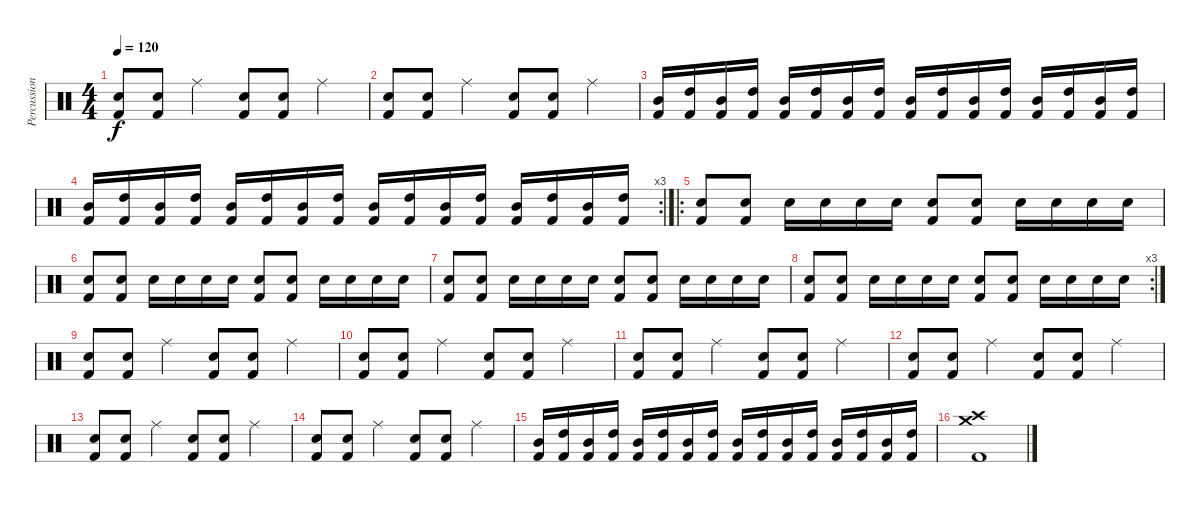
\track ("Percussion" "Percussion") {instrument percussion}
\staff {score}
\articulation defaults
\ts (4 4)
\tempo 120
\clef neutral
\ks c
("Electric Snare (hit)" "Kick (hit) 2").8{dy f} ("Electric Snare (hit)" "Kick (hit) 2").8 "Ride (middle)".4 ("Electric Snare (hit)" "Kick (hit) 2").8 ("Electric Snare (hit)" "Kick (hit) 2").8 "Ride (middle)".4 |
("Electric Snare (hit)" "Kick (hit) 2").8 ("Electric Snare (hit)" "Kick (hit) 2").8 "Ride (middle)".4 ("Electric Snare (hit)" "Kick (hit) 2").8 ("Electric Snare (hit)" "Kick (hit) 2").8 "Ride (middle)".4 |
("Kick (hit) 2" "Mid Tom (hit)").16 ("Kick (hit) 2" "High Tom (hit)").16 ("Kick (hit) 2" "Mid Tom (hit)").16 ("Kick (hit) 2" "High Tom (hit)").16 ("Kick (hit) 2" "Mid Tom (hit)").16 ("Kick (hit) 2" "High Tom (hit)").16 ("Kick (hit) 2" "Mid Tom (hit)").16 ("Kick (hit) 2" "High Tom (hit)").16 ("Kick (hit) 2" "Mid Tom (hit)").16 ("Kick (hit) 2" "High Tom (hit)").16 ("Kick (hit) 2" "Mid Tom (hit)").16 ("Kick (hit) 2" "High Tom (hit)").16 ("Kick (hit) 2" "Mid Tom (hit)").16 ("Kick (hit) 2" "High Tom (hit)").16 ("Kick (hit) 2" "Mid Tom (hit)").16 ("Kick (hit) 2" "High Tom (hit)").16 |
\rc 3
("Kick (hit) 2" "Mid Tom (hit)").16 ("Kick (hit) 2" "High Tom (hit)").16 ("Kick (hit) 2" "Mid Tom (hit)").16 ("Kick (hit) 2" "High Tom (hit)").16 ("Kick (hit) 2" "Mid Tom (hit)").16 ("Kick (hit) 2" "High Tom (hit)").16 ("Kick (hit) 2" "Mid Tom (hit)").16 ("Kick (hit) 2" "High Tom (hit)").16 ("Kick (hit) 2" "Mid Tom (hit)").16 ("Kick (hit) 2" "High Tom (hit)").16 ("Kick (hit) 2" "Mid Tom (hit)").16 ("Kick (hit) 2" "High Tom (hit)").16 ("Kick (hit) 2" "Mid Tom (hit)").16 ("Kick (hit) 2" "High Tom (hit)").16 ("Kick (hit) 2" "Mid Tom (hit)").16 ("Kick (hit) 2" "High Tom (hit)").16 |
\ro
("Electric Snare (hit)" "Kick (hit) 2").8 ("Electric Snare (hit)" "Kick (hit) 2").8 "Electric Snare (hit)".16 "Electric Snare (hit)".16 "Electric Snare (hit)".16 "Electric Snare (hit)".16 ("Electric Snare (hit)" "Kick (hit) 2").8 ("Electric Snare (hit)" "Kick (hit) 2").8 "Electric Snare (hit)".16 "Electric Snare (hit)".16 "Electric Snare (hit)".16 "Electric Snare (hit)".16 |
("Electric Snare (hit)" "Kick (hit) 2").8 ("Electric Snare (hit)" "Kick (hit) 2").8 "Electric Snare (hit)".16 "Electric Snare (hit)".16 "Electric Snare (hit)".16 "Electric Snare (hit)".16 ("Electric Snare (hit)" "Kick (hit) 2").8 ("Electric Snare (hit)" "Kick (hit) 2").8 "Electric Snare (hit)".16 "Electric Snare (hit)".16 "Electric Snare (hit)".16 "Electric Snare (hit)".16 |
("Electric Snare (hit)" "Kick (hit) 2").8 ("Electric Snare (hit)" "Kick (hit) 2").8 "Electric Snare (hit)".16 "Electric Snare (hit)".16 "Electric Snare (hit)".16 "Electric Snare (hit)".16 ("Electric Snare (hit)" "Kick (hit) 2").8 ("Electric Snare (hit)" "Kick (hit) 2").8 "Electric Snare (hit)".16 "Electric Snare (hit)".16 "Electric Snare (hit)".16 "Electric Snare (hit)".16 |
\rc 3
("Electric Snare (hit)" "Kick (hit) 2").8 ("Electric Snare (hit)" "Kick (hit) 2").8 "Electric Snare (hit)".16 "Electric Snare (hit)".16 "Electric Snare (hit)".16 "Electric Snare (hit)".16 ("Electric Snare (hit)" "Kick (hit) 2").8 ("Electric Snare (hit)" "Kick (hit) 2").8 "Electric Snare (hit)".16 "Electric Snare (hit)".16 "Electric Snare (hit)".16 "Electric Snare (hit)".16 |
("Electric Snare (hit)" "Kick (hit) 2").8 ("Electric Snare (hit)" "Kick (hit) 2").8 "Ride (middle)".4 ("Electric Snare (hit)" "Kick (hit) 2").8 ("Electric Snare (hit)" "Kick (hit) 2").8 "Ride (middle)".4 |
("Electric Snare (hit)" "Kick (hit) 2").8 ("Electric Snare (hit)" "Kick (hit) 2").8 "Ride (middle)".4 ("Electric Snare (hit)" "Kick (hit) 2").8 ("Electric Snare (hit)" "Kick (hit) 2").8 "Ride (middle)".4 |
("Electric Snare (hit)" "Kick (hit) 2").8 ("Electric Snare (hit)" "Kick (hit) 2").8 "Ride (middle)".4 ("Electric Snare (hit)" "Kick (hit) 2").8 ("Electric Snare (hit)" "Kick (hit) 2").8 "Ride (middle)".4 |
("Electric Snare (hit)" "Kick (hit) 2").8 ("Electric Snare (hit)" "Kick (hit) 2").8 "Ride (middle)".4 ("Electric Snare (hit)" "Kick (hit) 2").8 ("Electric Snare (hit)" "Kick (hit) 2").8 "Ride (middle)".4 |
("Electric Snare (hit)" "Kick (hit) 2").8 ("Electric Snare (hit)" "Kick (hit) 2").8 "Ride (middle)".4 ("Electric Snare (hit)" "Kick (hit) 2").8 ("Electric Snare (hit)" "Kick (hit) 2").8 "Ride (middle)".4 |
("Electric Snare (hit)" "Kick (hit) 2").8 ("Electric Snare (hit)" "Kick (hit) 2").8 "Ride (middle)".4 ("Electric Snare (hit)" "Kick (hit) 2").8 ("Electric Snare (hit)" "Kick (hit) 2").8 "Ride (middle)".4 |
("Kick (hit) 2" "Mid Tom (hit)").16 ("Kick (hit) 2" "High Tom (hit)").16 ("Kick (hit) 2" "Mid Tom (hit)").16 ("Kick (hit) 2" "High Tom (hit)").16 ("Kick (hit) 2" "Mid Tom (hit)").16 ("Kick (hit) 2" "High Tom (hit)").16 ("Kick (hit) 2" "Mid Tom (hit)").16 ("Kick (hit) 2" "High Tom (hit)").16 ("Kick (hit) 2" "Mid Tom (hit)").16 ("Kick (hit) 2" "High Tom (hit)").16 ("Kick (hit) 2" "Mid Tom (hit)").16 ("Kick (hit) 2" "High Tom (hit)").16 ("Kick (hit) 2" "Mid Tom (hit)").16 ("Kick (hit) 2" "High Tom (hit)").16 ("Kick (hit) 2" "Mid Tom (hit)").16 ("Kick (hit) 2" "High Tom (hit)").16 |
("Crash high (hit)" "Crash medium (hit)" "Kick (hit) 2").1
